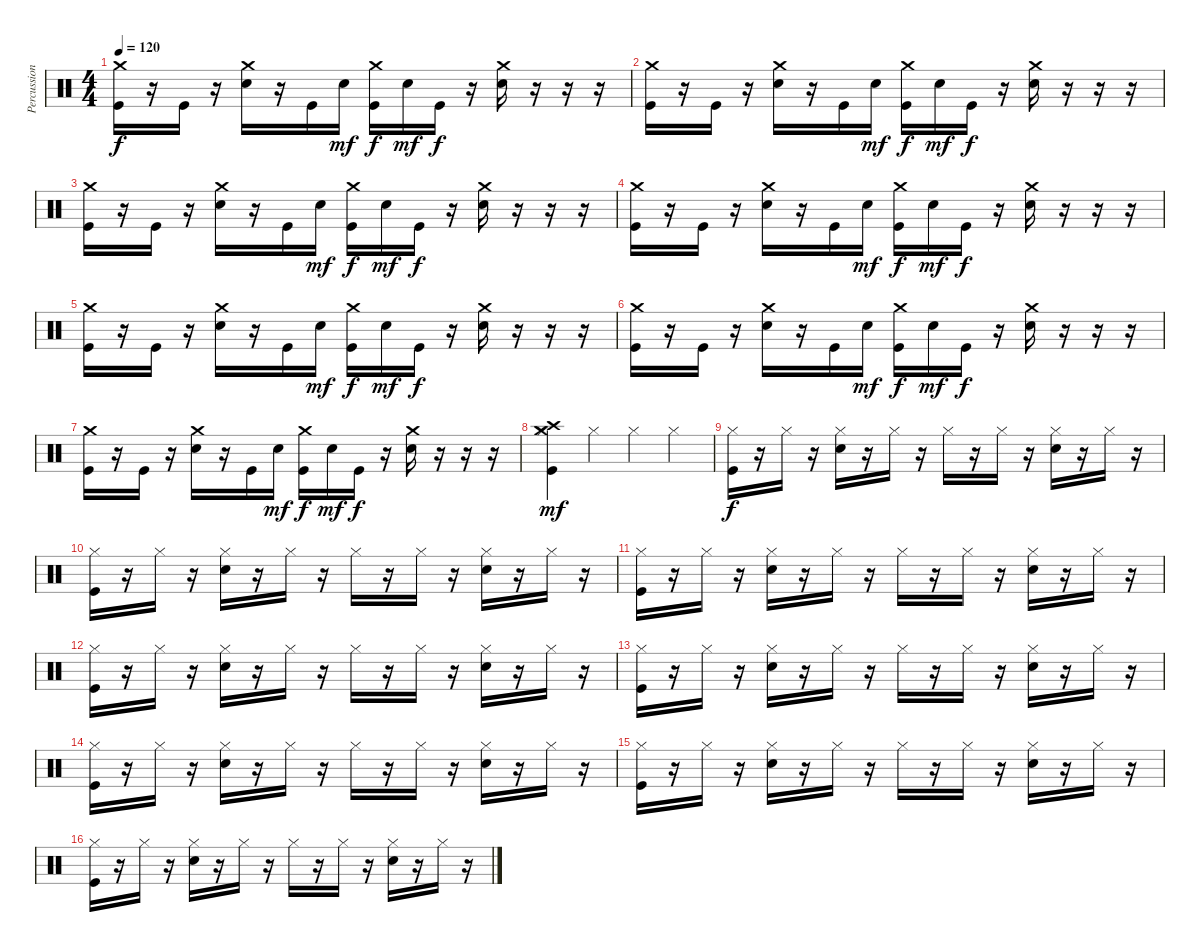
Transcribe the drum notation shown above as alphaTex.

\track ("Percussions" "Percussion") {instrument percussion}
\staff {score}
\articulation defaults
\ts (4 4)
\tempo 120
\clef neutral
\ks c
("Kick (hit)" "Crash medium (hit)").16{dy f} r.16 "Kick (hit)".16 r.16 ("Electric Snare (hit)" "Crash medium (hit)").16 r.16 "Kick (hit)".16 "Electric Snare (hit)".16{dy mf} ("Kick (hit)" "Crash medium (hit)").16{dy f} "Electric Snare (hit)".16{dy mf} "Kick (hit)".16{dy f} r.16 ("Electric Snare (hit)" "Crash medium (hit)").16 r.16 r.16 r.16 |
("Kick (hit)" "Crash medium (hit)").16 r.16 "Kick (hit)".16 r.16 ("Electric Snare (hit)" "Crash medium (hit)").16 r.16 "Kick (hit)".16 "Electric Snare (hit)".16{dy mf} ("Kick (hit)" "Crash medium (hit)").16{dy f} "Electric Snare (hit)".16{dy mf} "Kick (hit)".16{dy f} r.16 ("Electric Snare (hit)" "Crash medium (hit)").16 r.16 r.16 r.16 |
("Kick (hit)" "Crash medium (hit)").16 r.16 "Kick (hit)".16 r.16 ("Electric Snare (hit)" "Crash medium (hit)").16 r.16 "Kick (hit)".16 "Electric Snare (hit)".16{dy mf} ("Kick (hit)" "Crash medium (hit)").16{dy f} "Electric Snare (hit)".16{dy mf} "Kick (hit)".16{dy f} r.16 ("Electric Snare (hit)" "Crash medium (hit)").16 r.16 r.16 r.16 |
("Kick (hit)" "Crash medium (hit)").16 r.16 "Kick (hit)".16 r.16 ("Electric Snare (hit)" "Crash medium (hit)").16 r.16 "Kick (hit)".16 "Electric Snare (hit)".16{dy mf} ("Kick (hit)" "Crash medium (hit)").16{dy f} "Electric Snare (hit)".16{dy mf} "Kick (hit)".16{dy f} r.16 ("Electric Snare (hit)" "Crash medium (hit)").16 r.16 r.16 r.16 |
("Kick (hit)" "Crash medium (hit)").16 r.16 "Kick (hit)".16 r.16 ("Electric Snare (hit)" "Crash medium (hit)").16 r.16 "Kick (hit)".16 "Electric Snare (hit)".16{dy mf} ("Kick (hit)" "Crash medium (hit)").16{dy f} "Electric Snare (hit)".16{dy mf} "Kick (hit)".16{dy f} r.16 ("Electric Snare (hit)" "Crash medium (hit)").16 r.16 r.16 r.16 |
("Kick (hit)" "Crash medium (hit)").16 r.16 "Kick (hit)".16 r.16 ("Electric Snare (hit)" "Crash medium (hit)").16 r.16 "Kick (hit)".16 "Electric Snare (hit)".16{dy mf} ("Kick (hit)" "Crash medium (hit)").16{dy f} "Electric Snare (hit)".16{dy mf} "Kick (hit)".16{dy f} r.16 ("Electric Snare (hit)" "Crash medium (hit)").16 r.16 r.16 r.16 |
("Kick (hit)" "Crash medium (hit)").16 r.16 "Kick (hit)".16 r.16 ("Electric Snare (hit)" "Crash medium (hit)").16 r.16 "Kick (hit)".16 "Electric Snare (hit)".16{dy mf} ("Kick (hit)" "Crash medium (hit)").16{dy f} "Electric Snare (hit)".16{dy mf} "Kick (hit)".16{dy f} r.16 ("Electric Snare (hit)" "Crash medium (hit)").16 r.16 r.16 r.16 |
("Hi-Hat (closed)" "Kick (hit)" "Crash high (hit)" "Crash medium (hit)").4{dy mf} "Hi-Hat (closed)".4 "Hi-Hat (closed)".4 "Hi-Hat (closed)".4 |
("Kick (hit)" "Hi-Hat (closed)").16{dy f} r.16 "Hi-Hat (closed)".16 r.16 ("Electric Snare (hit)" "Hi-Hat (closed)").16 r.16 "Hi-Hat (closed)".16 r.16 "Hi-Hat (closed)".16 r.16 "Hi-Hat (closed)".16 r.16 ("Electric Snare (hit)" "Hi-Hat (closed)").16 r.16 "Hi-Hat (closed)".16 r.16 |
("Kick (hit)" "Hi-Hat (closed)").16 r.16 "Hi-Hat (closed)".16 r.16 ("Electric Snare (hit)" "Hi-Hat (closed)").16 r.16 "Hi-Hat (closed)".16 r.16 "Hi-Hat (closed)".16 r.16 "Hi-Hat (closed)".16 r.16 ("Electric Snare (hit)" "Hi-Hat (closed)").16 r.16 "Hi-Hat (closed)".16 r.16 |
("Kick (hit)" "Hi-Hat (closed)").16 r.16 "Hi-Hat (closed)".16 r.16 ("Electric Snare (hit)" "Hi-Hat (closed)").16 r.16 "Hi-Hat (closed)".16 r.16 "Hi-Hat (closed)".16 r.16 "Hi-Hat (closed)".16 r.16 ("Electric Snare (hit)" "Hi-Hat (closed)").16 r.16 "Hi-Hat (closed)".16 r.16 |
("Kick (hit)" "Hi-Hat (closed)").16 r.16 "Hi-Hat (closed)".16 r.16 ("Electric Snare (hit)" "Hi-Hat (closed)").16 r.16 "Hi-Hat (closed)".16 r.16 "Hi-Hat (closed)".16 r.16 "Hi-Hat (closed)".16 r.16 ("Electric Snare (hit)" "Hi-Hat (closed)").16 r.16 "Hi-Hat (closed)".16 r.16 |
("Kick (hit)" "Hi-Hat (closed)").16 r.16 "Hi-Hat (closed)".16 r.16 ("Electric Snare (hit)" "Hi-Hat (closed)").16 r.16 "Hi-Hat (closed)".16 r.16 "Hi-Hat (closed)".16 r.16 "Hi-Hat (closed)".16 r.16 ("Electric Snare (hit)" "Hi-Hat (closed)").16 r.16 "Hi-Hat (closed)".16 r.16 |
("Kick (hit)" "Hi-Hat (closed)").16 r.16 "Hi-Hat (closed)".16 r.16 ("Electric Snare (hit)" "Hi-Hat (closed)").16 r.16 "Hi-Hat (closed)".16 r.16 "Hi-Hat (closed)".16 r.16 "Hi-Hat (closed)".16 r.16 ("Electric Snare (hit)" "Hi-Hat (closed)").16 r.16 "Hi-Hat (closed)".16 r.16 |
("Kick (hit)" "Hi-Hat (closed)").16 r.16 "Hi-Hat (closed)".16 r.16 ("Electric Snare (hit)" "Hi-Hat (closed)").16 r.16 "Hi-Hat (closed)".16 r.16 "Hi-Hat (closed)".16 r.16 "Hi-Hat (closed)".16 r.16 ("Electric Snare (hit)" "Hi-Hat (closed)").16 r.16 "Hi-Hat (closed)".16 r.16 |
("Kick (hit)" "Hi-Hat (closed)").16 r.16 "Hi-Hat (closed)".16 r.16 ("Electric Snare (hit)" "Hi-Hat (closed)").16 r.16 "Hi-Hat (closed)".16 r.16 "Hi-Hat (closed)".16 r.16 "Hi-Hat (closed)".16 r.16 ("Electric Snare (hit)" "Hi-Hat (closed)").16 r.16 "Hi-Hat (closed)".16 r.16
